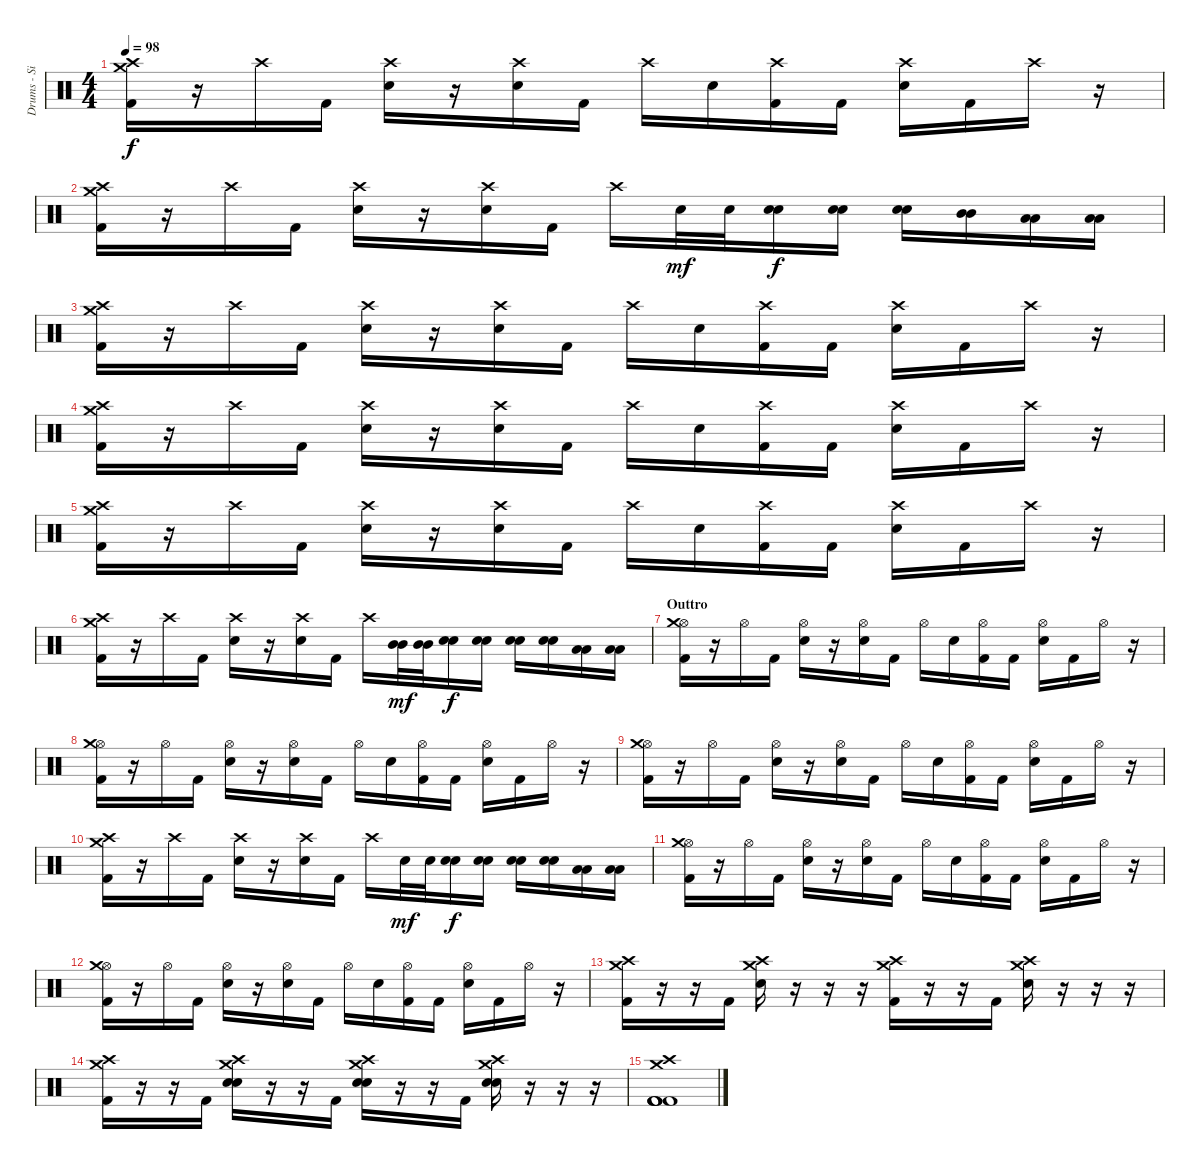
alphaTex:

\track ("Drums - Si" "Drums - Si") {instrument percussion}
\staff {score}
\articulation defaults
\ts (4 4)
\tempo 98
\clef neutral
\ks c
("Crash high (hit)" "Crash medium (hit)" "Kick (hit) 2").16{dy f} r.16 "Crash high (hit)".16 "Kick (hit) 2".16 ("Crash high (hit)" "Snare (hit) 2").16 r.16 ("Crash high (hit)" "Snare (hit) 2").16 "Kick (hit) 2".16 "Crash high (hit)".16 "Snare (hit) 2".16 ("Crash high (hit)" "Kick (hit) 2").16 "Kick (hit) 2".16 ("Crash high (hit)" "Snare (hit) 2").16 "Kick (hit) 2".16 "Crash high (hit)".16 r.16 |
("Crash high (hit)" "Crash medium (hit)" "Kick (hit) 2").16 r.16 "Crash high (hit)".16 "Kick (hit) 2".16 ("Crash high (hit)" "Snare (hit) 2").16 r.16 ("Crash high (hit)" "Snare (hit) 2").16 "Kick (hit) 2".16 "Crash high (hit)".16 "Snare (hit) 2".32{dy mf} "Snare (hit) 2".32 ("Snare (hit) 2" "Snare (hit) 2").16{dy f} ("Snare (hit) 2" "Snare (hit) 2").16 ("Snare (hit) 2" "Snare (hit) 2").16 ("Mid Tom (hit)" "Mid Tom (hit)").16 ("Low Tom (hit)" "Low Tom (hit)").16 ("Low Tom (hit)" "Low Tom (hit)").16 |
("Crash high (hit)" "Crash medium (hit)" "Kick (hit) 2").16 r.16 "Crash high (hit)".16 "Kick (hit) 2".16 ("Crash high (hit)" "Snare (hit) 2").16 r.16 ("Crash high (hit)" "Snare (hit) 2").16 "Kick (hit) 2".16 "Crash high (hit)".16 "Snare (hit) 2".16 ("Crash high (hit)" "Kick (hit) 2").16 "Kick (hit) 2".16 ("Crash high (hit)" "Snare (hit) 2").16 "Kick (hit) 2".16 "Crash high (hit)".16 r.16 |
("Crash high (hit)" "Crash medium (hit)" "Kick (hit) 2").16 r.16 "Crash high (hit)".16 "Kick (hit) 2".16 ("Crash high (hit)" "Snare (hit) 2").16 r.16 ("Crash high (hit)" "Snare (hit) 2").16 "Kick (hit) 2".16 "Crash high (hit)".16 "Snare (hit) 2".16 ("Crash high (hit)" "Kick (hit) 2").16 "Kick (hit) 2".16 ("Crash high (hit)" "Snare (hit) 2").16 "Kick (hit) 2".16 "Crash high (hit)".16 r.16 |
("Crash high (hit)" "Crash medium (hit)" "Kick (hit) 2").16 r.16 "Crash high (hit)".16 "Kick (hit) 2".16 ("Crash high (hit)" "Snare (hit) 2").16 r.16 ("Crash high (hit)" "Snare (hit) 2").16 "Kick (hit) 2".16 "Crash high (hit)".16 "Snare (hit) 2".16 ("Crash high (hit)" "Kick (hit) 2").16 "Kick (hit) 2".16 ("Crash high (hit)" "Snare (hit) 2").16 "Kick (hit) 2".16 "Crash high (hit)".16 r.16 |
("Crash high (hit)" "Crash medium (hit)" "Kick (hit) 2").16 r.16 "Crash high (hit)".16 "Kick (hit) 2".16 ("Crash high (hit)" "Snare (hit) 2").16 r.16 ("Crash high (hit)" "Snare (hit) 2").16 "Kick (hit) 2".16 "Crash high (hit)".16 ("Mid Tom (hit)" "Mid Tom (hit)").32{dy mf} ("Mid Tom (hit)" "Mid Tom (hit)").32 ("Snare (hit) 2" "Snare (hit) 2").16{dy f} ("Snare (hit) 2" "Snare (hit) 2").16 ("Electric Snare (hit)" "Electric Snare (hit)").16 ("Electric Snare (hit)" "Electric Snare (hit)").16 ("Low Tom (hit)" "Low Tom (hit)").16 ("Low Tom (hit)" "Low Tom (hit)").16 |
\section ("" "Outtro")
("Hi-Hat (open)" "Crash medium (hit)" "Kick (hit) 2").16 r.16 "Hi-Hat (open)".16 "Kick (hit) 2".16 ("Hi-Hat (open)" "Snare (hit) 2").16 r.16 ("Hi-Hat (open)" "Snare (hit) 2").16 "Kick (hit) 2".16 "Hi-Hat (open)".16 "Snare (hit) 2".16 ("Hi-Hat (open)" "Kick (hit) 2").16 "Kick (hit) 2".16 ("Hi-Hat (open)" "Snare (hit) 2").16 "Kick (hit) 2".16 "Hi-Hat (open)".16 r.16 |
("Hi-Hat (open)" "Crash medium (hit)" "Kick (hit) 2").16 r.16 "Hi-Hat (open)".16 "Kick (hit) 2".16 ("Hi-Hat (open)" "Snare (hit) 2").16 r.16 ("Hi-Hat (open)" "Snare (hit) 2").16 "Kick (hit) 2".16 "Hi-Hat (open)".16 "Snare (hit) 2".16 ("Hi-Hat (open)" "Kick (hit) 2").16 "Kick (hit) 2".16 ("Hi-Hat (open)" "Snare (hit) 2").16 "Kick (hit) 2".16 "Hi-Hat (open)".16 r.16 |
("Hi-Hat (open)" "Crash medium (hit)" "Kick (hit) 2").16 r.16 "Hi-Hat (open)".16 "Kick (hit) 2".16 ("Hi-Hat (open)" "Snare (hit) 2").16 r.16 ("Hi-Hat (open)" "Snare (hit) 2").16 "Kick (hit) 2".16 "Hi-Hat (open)".16 "Snare (hit) 2".16 ("Hi-Hat (open)" "Kick (hit) 2").16 "Kick (hit) 2".16 ("Hi-Hat (open)" "Snare (hit) 2").16 "Kick (hit) 2".16 "Hi-Hat (open)".16 r.16 |
("Crash high (hit)" "Crash medium (hit)" "Kick (hit) 2").16 r.16 "Crash high (hit)".16 "Kick (hit) 2".16 ("Crash high (hit)" "Snare (hit) 2").16 r.16 ("Crash high (hit)" "Snare (hit) 2").16 "Kick (hit) 2".16 "Crash high (hit)".16 "Snare (hit) 2".32{dy mf} "Snare (hit) 2".32 ("Snare (hit) 2" "Snare (hit) 2").16{dy f} ("Snare (hit) 2" "Snare (hit) 2").16 ("Snare (hit) 2" "Snare (hit) 2").16 ("Snare (hit) 2" "Snare (hit) 2").16 ("Low Tom (hit)" "Low Tom (hit)").16 ("Low Tom (hit)" "Low Tom (hit)").16 |
("Hi-Hat (open)" "Crash medium (hit)" "Kick (hit) 2").16 r.16 "Hi-Hat (open)".16 "Kick (hit) 2".16 ("Hi-Hat (open)" "Snare (hit) 2").16 r.16 ("Hi-Hat (open)" "Snare (hit) 2").16 "Kick (hit) 2".16 "Hi-Hat (open)".16 "Snare (hit) 2".16 ("Hi-Hat (open)" "Kick (hit) 2").16 "Kick (hit) 2".16 ("Hi-Hat (open)" "Snare (hit) 2").16 "Kick (hit) 2".16 "Hi-Hat (open)".16 r.16 |
("Hi-Hat (open)" "Crash medium (hit)" "Kick (hit) 2").16 r.16 "Hi-Hat (open)".16 "Kick (hit) 2".16 ("Hi-Hat (open)" "Snare (hit) 2").16 r.16 ("Hi-Hat (open)" "Snare (hit) 2").16 "Kick (hit) 2".16 "Hi-Hat (open)".16 "Snare (hit) 2".16 ("Hi-Hat (open)" "Kick (hit) 2").16 "Kick (hit) 2".16 ("Hi-Hat (open)" "Snare (hit) 2").16 "Kick (hit) 2".16 "Hi-Hat (open)".16 r.16 |
("Crash high (hit)" "Crash medium (hit)" "Kick (hit) 2").16 r.16 r.16 "Kick (hit) 2".16 ("Crash high (hit)" "Crash medium (hit)" "Snare (hit) 2").16 r.16 r.16 r.16 ("Crash high (hit)" "Crash medium (hit)" "Kick (hit) 2").16 r.16 r.16 "Kick (hit) 2".16 ("Crash high (hit)" "Crash medium (hit)" "Snare (hit) 2").16 r.16 r.16 r.16 |
("Crash high (hit)" "Crash medium (hit)" "Kick (hit) 2").16 r.16 r.16 "Kick (hit) 2".16 ("Crash high (hit)" "Crash medium (hit)" "Snare (hit) 2" "Snare (hit) 2").16 r.16 r.16 "Kick (hit) 2".16 ("Crash high (hit)" "Crash medium (hit)" "Snare (hit) 2" "Snare (hit) 2").16 r.16 r.16 "Kick (hit) 2".16 ("Crash high (hit)" "Crash medium (hit)" "Snare (hit) 2" "Snare (hit) 2").16 r.16 r.16 r.16 |
("Crash high (hit)" "Crash medium (hit)" "Kick (hit) 2" "Kick (hit) 2" "Kick (hit) 2" "Kick (hit) 2").1
